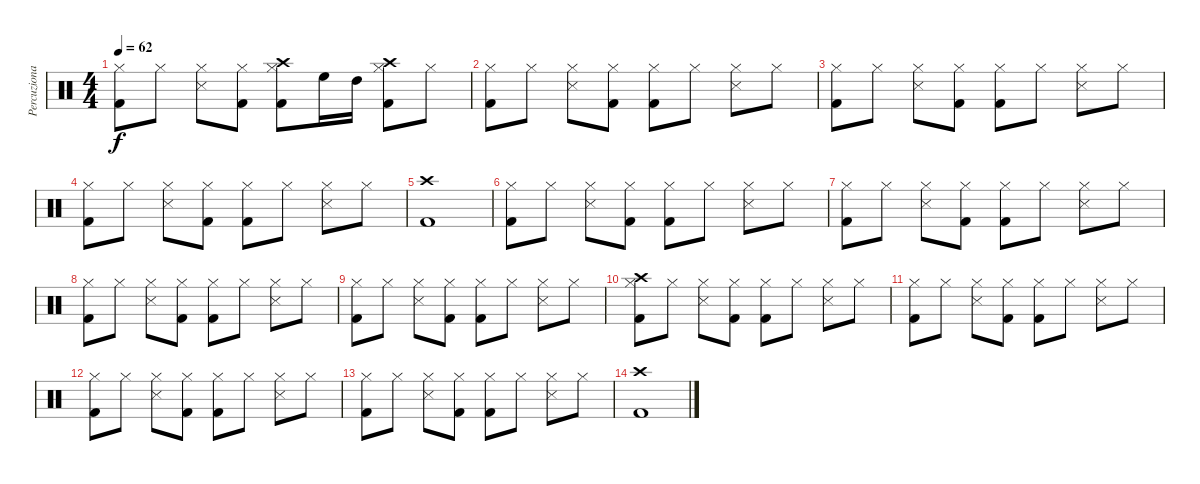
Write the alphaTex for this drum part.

\track ("Percuzionale" "Percuziona") {instrument percussion}
\staff {score}
\articulation defaults
\ts (4 4)
\tempo 62
\clef neutral
\ks c
("Hi-Hat (closed)" "Kick (hit) 2").8{dy f} "Hi-Hat (closed)".8 ("Hi-Hat (closed)" "Snare (side stick) 3").8 ("Hi-Hat (closed)" "Kick (hit) 2").8 ("Crash high (hit)" "Hi-Hat (closed)" "Kick (hit) 2").8 "High Floor Tom (hit)".16 "High Tom (hit)".16 ("Crash high (hit)" "Hi-Hat (closed)" "Kick (hit) 2").8 "Hi-Hat (closed)".8 |
("Hi-Hat (closed)" "Kick (hit) 2").8 "Hi-Hat (closed)".8 ("Hi-Hat (closed)" "Snare (side stick) 3").8 ("Hi-Hat (closed)" "Kick (hit) 2").8 ("Hi-Hat (closed)" "Kick (hit) 2").8 "Hi-Hat (closed)".8 ("Hi-Hat (closed)" "Snare (side stick) 3").8 "Hi-Hat (closed)".8 |
("Hi-Hat (closed)" "Kick (hit) 2").8 "Hi-Hat (closed)".8 ("Hi-Hat (closed)" "Snare (side stick) 3").8 ("Hi-Hat (closed)" "Kick (hit) 2").8 ("Hi-Hat (closed)" "Kick (hit) 2").8 "Hi-Hat (closed)".8 ("Hi-Hat (closed)" "Snare (side stick) 3").8 "Hi-Hat (closed)".8 |
("Hi-Hat (closed)" "Kick (hit) 2").8 "Hi-Hat (closed)".8 ("Hi-Hat (closed)" "Snare (side stick) 3").8 ("Hi-Hat (closed)" "Kick (hit) 2").8 ("Hi-Hat (closed)" "Kick (hit) 2").8 "Hi-Hat (closed)".8 ("Hi-Hat (closed)" "Snare (side stick) 3").8 "Hi-Hat (closed)".8 |
("Crash high (hit)" "Kick (hit) 2").1 |
("Hi-Hat (closed)" "Kick (hit) 2").8 "Hi-Hat (closed)".8 ("Hi-Hat (closed)" "Snare (side stick) 3").8 ("Hi-Hat (closed)" "Kick (hit) 2").8 ("Hi-Hat (closed)" "Kick (hit) 2").8 "Hi-Hat (closed)".8 ("Hi-Hat (closed)" "Snare (side stick) 3").8 "Hi-Hat (closed)".8 |
("Hi-Hat (closed)" "Kick (hit) 2").8 "Hi-Hat (closed)".8 ("Hi-Hat (closed)" "Snare (side stick) 3").8 ("Hi-Hat (closed)" "Kick (hit) 2").8 ("Hi-Hat (closed)" "Kick (hit) 2").8 "Hi-Hat (closed)".8 ("Hi-Hat (closed)" "Snare (side stick) 3").8 "Hi-Hat (closed)".8 |
("Hi-Hat (closed)" "Kick (hit) 2").8 "Hi-Hat (closed)".8 ("Hi-Hat (closed)" "Snare (side stick) 3").8 ("Hi-Hat (closed)" "Kick (hit) 2").8 ("Hi-Hat (closed)" "Kick (hit) 2").8 "Hi-Hat (closed)".8 ("Hi-Hat (closed)" "Snare (side stick) 3").8 "Hi-Hat (closed)".8 |
("Hi-Hat (closed)" "Kick (hit) 2").8 "Hi-Hat (closed)".8 ("Hi-Hat (closed)" "Snare (side stick) 3").8 ("Hi-Hat (closed)" "Kick (hit) 2").8 ("Hi-Hat (closed)" "Kick (hit) 2").8 "Hi-Hat (closed)".8 ("Hi-Hat (closed)" "Snare (side stick) 3").8 "Hi-Hat (closed)".8 |
("Crash high (hit)" "Hi-Hat (closed)" "Kick (hit) 2").8 "Hi-Hat (closed)".8 ("Hi-Hat (closed)" "Snare (side stick) 3").8 ("Hi-Hat (closed)" "Kick (hit) 2").8 ("Hi-Hat (closed)" "Kick (hit) 2").8 "Hi-Hat (closed)".8 ("Hi-Hat (closed)" "Snare (side stick) 3").8 "Hi-Hat (closed)".8 |
("Hi-Hat (closed)" "Kick (hit) 2").8 "Hi-Hat (closed)".8 ("Hi-Hat (closed)" "Snare (side stick) 3").8 ("Hi-Hat (closed)" "Kick (hit) 2").8 ("Hi-Hat (closed)" "Kick (hit) 2").8 "Hi-Hat (closed)".8 ("Hi-Hat (closed)" "Snare (side stick) 3").8 "Hi-Hat (closed)".8 |
("Hi-Hat (closed)" "Kick (hit) 2").8 "Hi-Hat (closed)".8 ("Hi-Hat (closed)" "Snare (side stick) 3").8 ("Hi-Hat (closed)" "Kick (hit) 2").8 ("Hi-Hat (closed)" "Kick (hit) 2").8 "Hi-Hat (closed)".8 ("Hi-Hat (closed)" "Snare (side stick) 3").8 "Hi-Hat (closed)".8 |
("Hi-Hat (closed)" "Kick (hit) 2").8 "Hi-Hat (closed)".8 ("Hi-Hat (closed)" "Snare (side stick) 3").8 ("Hi-Hat (closed)" "Kick (hit) 2").8 ("Hi-Hat (closed)" "Kick (hit) 2").8 "Hi-Hat (closed)".8 ("Hi-Hat (closed)" "Snare (side stick) 3").8 "Hi-Hat (closed)".8 |
("Crash high (hit)" "Kick (hit) 2").1
